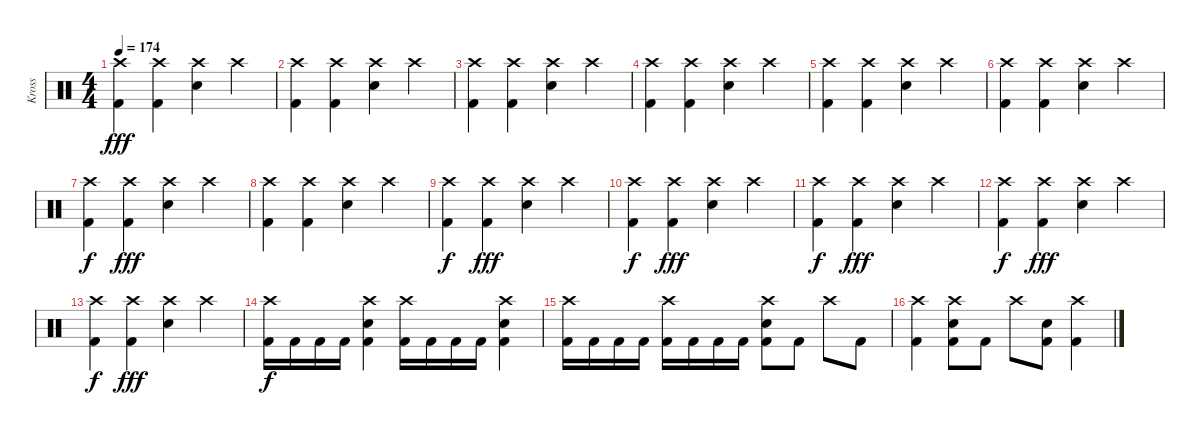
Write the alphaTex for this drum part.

\track ("Kross" "Kross") {instrument percussion}
\staff {score}
\articulation defaults
\ts (4 4)
\tempo 174
\clef neutral
\ks c
("Crash high (hit)" "Kick (hit) 2").4{dy fff} ("Crash high (hit)" "Kick (hit) 2").4 ("Crash high (hit)" "Electric Snare (hit)").4 "Crash high (hit)".4 |
("Crash high (hit)" "Kick (hit) 2").4 ("Crash high (hit)" "Kick (hit) 2").4 ("Crash high (hit)" "Electric Snare (hit)").4 "Crash high (hit)".4 |
("Crash high (hit)" "Kick (hit) 2").4 ("Crash high (hit)" "Kick (hit) 2").4 ("Crash high (hit)" "Electric Snare (hit)").4 "Crash high (hit)".4 |
("Crash high (hit)" "Kick (hit) 2").4 ("Crash high (hit)" "Kick (hit) 2").4 ("Crash high (hit)" "Electric Snare (hit)").4 "Crash high (hit)".4 |
("Crash high (hit)" "Kick (hit) 2").4 ("Crash high (hit)" "Kick (hit) 2").4 ("Crash high (hit)" "Electric Snare (hit)").4 "Crash high (hit)".4 |
("Crash high (hit)" "Kick (hit) 2").4 ("Crash high (hit)" "Kick (hit) 2").4 ("Crash high (hit)" "Electric Snare (hit)").4 "Crash high (hit)".4 |
("Crash high (hit)" "Kick (hit) 2").4{dy f} ("Crash high (hit)" "Kick (hit) 2").4{dy fff} ("Crash high (hit)" "Electric Snare (hit)").4 "Crash high (hit)".4 |
("Crash high (hit)" "Kick (hit) 2").4 ("Crash high (hit)" "Kick (hit) 2").4 ("Crash high (hit)" "Electric Snare (hit)").4 "Crash high (hit)".4 |
("Crash high (hit)" "Kick (hit) 2").4{dy f} ("Crash high (hit)" "Kick (hit) 2").4{dy fff} ("Crash high (hit)" "Electric Snare (hit)").4 "Crash high (hit)".4 |
("Crash high (hit)" "Kick (hit) 2").4{dy f} ("Crash high (hit)" "Kick (hit) 2").4{dy fff} ("Crash high (hit)" "Electric Snare (hit)").4 "Crash high (hit)".4 |
("Crash high (hit)" "Kick (hit) 2").4{dy f} ("Crash high (hit)" "Kick (hit) 2").4{dy fff} ("Crash high (hit)" "Electric Snare (hit)").4 "Crash high (hit)".4 |
("Crash high (hit)" "Kick (hit) 2").4{dy f} ("Crash high (hit)" "Kick (hit) 2").4{dy fff} ("Crash high (hit)" "Electric Snare (hit)").4 "Crash high (hit)".4 |
("Crash high (hit)" "Kick (hit) 2").4{dy f} ("Crash high (hit)" "Kick (hit) 2").4{dy fff} ("Crash high (hit)" "Electric Snare (hit)").4 "Crash high (hit)".4 |
("Crash high (hit)" "Kick (hit) 2").16{dy f} "Kick (hit) 2".16 "Kick (hit) 2".16 "Kick (hit) 2".16 ("Crash high (hit)" "Electric Snare (hit)" "Kick (hit) 2").4 ("Crash high (hit)" "Kick (hit) 2").16 "Kick (hit) 2".16 "Kick (hit) 2".16 "Kick (hit) 2".16 ("Crash high (hit)" "Electric Snare (hit)" "Kick (hit) 2").4 |
("Crash high (hit)" "Kick (hit) 2").16 "Kick (hit) 2".16 "Kick (hit) 2".16 "Kick (hit) 2".16 ("Crash high (hit)" "Kick (hit) 2").16 "Kick (hit) 2".16 "Kick (hit) 2".16 "Kick (hit) 2".16 ("Crash high (hit)" "Electric Snare (hit)" "Kick (hit) 2").8 "Kick (hit) 2".8 "Crash high (hit)".8 "Kick (hit) 2".8 |
("Crash high (hit)" "Kick (hit) 2").4 ("Crash high (hit)" "Electric Snare (hit)" "Kick (hit) 2").8 "Kick (hit) 2".8 "Crash high (hit)".8 ("Electric Snare (hit)" "Kick (hit) 2").8 ("Crash high (hit)" "Kick (hit) 2").4
